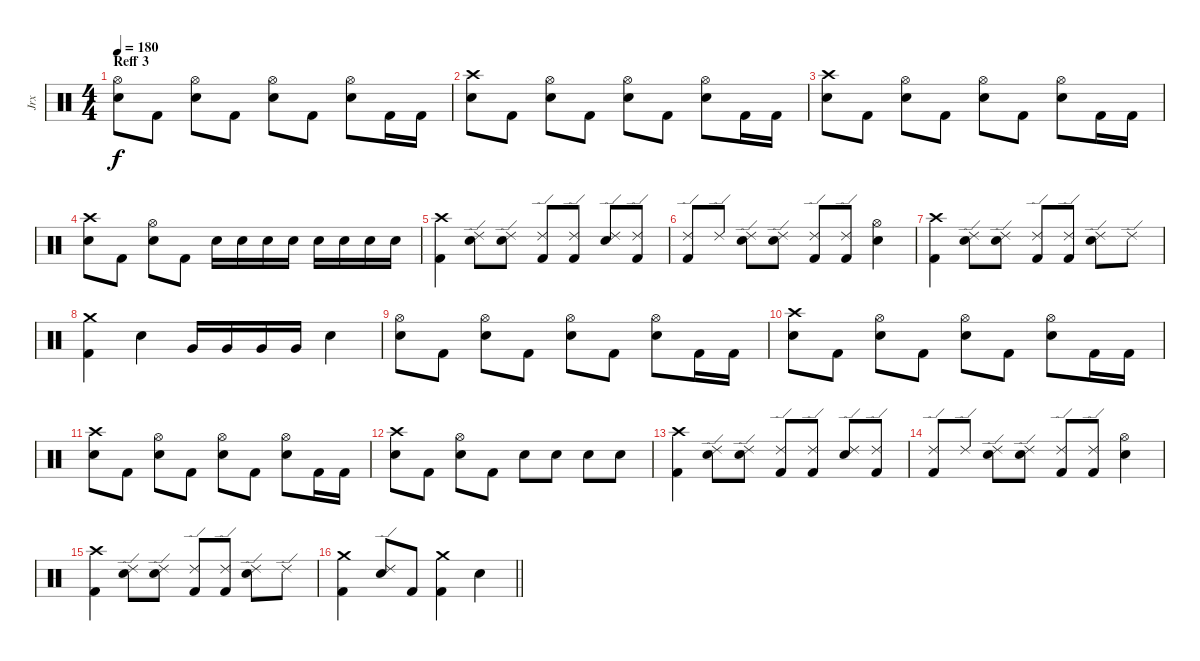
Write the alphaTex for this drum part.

\track ("Jrx" "Jrx") {instrument percussion}
\staff {score}
\articulation defaults
\ts (4 4)
\section ("" "Reff 3")
\tempo 180
\clef neutral
\ks c
("Electric Snare (hit)" "Hi-Hat (open)").8{dy f} "Kick (hit) 2".8 ("Electric Snare (hit)" "Hi-Hat (open)").8 "Kick (hit) 2".8 ("Snare (hit) 2" "Hi-Hat (open)").8 "Kick (hit) 2".8 ("Electric Snare (hit)" "Hi-Hat (open)").8 "Kick (hit) 2".16 "Kick (hit) 2".16 |
("Electric Snare (hit)" "Crash high (hit)").8 "Kick (hit) 2".8 ("Electric Snare (hit)" "Hi-Hat (open)").8 "Kick (hit) 2".8 ("Snare (hit) 2" "Hi-Hat (open)").8 "Kick (hit) 2".8 ("Electric Snare (hit)" "Hi-Hat (open)").8 "Kick (hit) 2".16 "Kick (hit) 2".16 |
("Electric Snare (hit)" "Crash high (hit)").8 "Kick (hit) 2".8 ("Electric Snare (hit)" "Hi-Hat (open)").8 "Kick (hit) 2".8 ("Snare (hit) 2" "Hi-Hat (open)").8 "Kick (hit) 2".8 ("Electric Snare (hit)" "Hi-Hat (open)").8 "Kick (hit) 2".16 "Kick (hit) 2".16 |
("Electric Snare (hit)" "Crash high (hit)").8 "Kick (hit) 2".8 ("Electric Snare (hit)" "Hi-Hat (open)").8 "Kick (hit) 2".8 "Electric Snare (hit)".16 "Electric Snare (hit)".16 "Electric Snare (hit)".16 "Electric Snare (hit)".16 "Electric Snare (hit)".16 "Electric Snare (hit)".16 "Electric Snare (hit)".16 "Electric Snare (hit)".16 |
("Kick (hit) 2" "Crash high (hit)").4 ("Electric Snare (hit)" "Ride (edge) 2").8 ("Electric Snare (hit)" "Ride (edge) 2").8 ("Kick (hit) 2" "Ride (edge) 2").8 ("Kick (hit) 2" "Ride (edge) 2").8 ("Electric Snare (hit)" "Ride (edge) 2").8 ("Kick (hit) 2" "Ride (edge) 2").8 |
("Kick (hit) 2" "Ride (edge) 2").8 "Ride (edge) 2".8 ("Electric Snare (hit)" "Ride (edge) 2").8 ("Electric Snare (hit)" "Ride (edge) 2").8 ("Kick (hit) 2" "Ride (edge) 2").8 ("Kick (hit) 2" "Ride (edge) 2").8 ("Electric Snare (hit)" "Hi-Hat (open)").4 |
("Kick (hit) 2" "Crash high (hit)").4 ("Electric Snare (hit)" "Ride (edge) 2").8 ("Electric Snare (hit)" "Ride (edge) 2").8 ("Kick (hit) 2" "Ride (edge) 2").8 ("Kick (hit) 2" "Ride (edge) 2").8 ("Electric Snare (hit)" "Ride (edge) 2").8 "Ride (edge) 2".8 |
("Kick (hit) 2" "Crash medium (hit)").4 "Electric Snare (hit)".4 "Very Low Tom (hit)".16 "Very Low Tom (hit)".16 "Very Low Tom (hit)".16 "Very Low Tom (hit)".16 "Electric Snare (hit)".4 |
("Electric Snare (hit)" "Hi-Hat (open)").8 "Kick (hit) 2".8 ("Electric Snare (hit)" "Hi-Hat (open)").8 "Kick (hit) 2".8 ("Snare (hit) 2" "Hi-Hat (open)").8 "Kick (hit) 2".8 ("Electric Snare (hit)" "Hi-Hat (open)").8 "Kick (hit) 2".16 "Kick (hit) 2".16 |
("Electric Snare (hit)" "Crash high (hit)").8 "Kick (hit) 2".8 ("Electric Snare (hit)" "Hi-Hat (open)").8 "Kick (hit) 2".8 ("Snare (hit) 2" "Hi-Hat (open)").8 "Kick (hit) 2".8 ("Electric Snare (hit)" "Hi-Hat (open)").8 "Kick (hit) 2".16 "Kick (hit) 2".16 |
("Electric Snare (hit)" "Crash high (hit)").8 "Kick (hit) 2".8 ("Electric Snare (hit)" "Hi-Hat (open)").8 "Kick (hit) 2".8 ("Snare (hit) 2" "Hi-Hat (open)").8 "Kick (hit) 2".8 ("Electric Snare (hit)" "Hi-Hat (open)").8 "Kick (hit) 2".16 "Kick (hit) 2".16 |
("Electric Snare (hit)" "Crash high (hit)").8 "Kick (hit) 2".8 ("Electric Snare (hit)" "Hi-Hat (open)").8 "Kick (hit) 2".8 "Electric Snare (hit)".8 "Electric Snare (hit)".8 "Electric Snare (hit)".8 "Electric Snare (hit)".8 |
("Kick (hit) 2" "Crash high (hit)").4 ("Electric Snare (hit)" "Ride (edge) 2").8 ("Electric Snare (hit)" "Ride (edge) 2").8 ("Kick (hit) 2" "Ride (edge) 2").8 ("Kick (hit) 2" "Ride (edge) 2").8 ("Electric Snare (hit)" "Ride (edge) 2").8 ("Kick (hit) 2" "Ride (edge) 2").8 |
("Kick (hit) 2" "Ride (edge) 2").8 "Ride (edge) 2".8 ("Electric Snare (hit)" "Ride (edge) 2").8 ("Electric Snare (hit)" "Ride (edge) 2").8 ("Kick (hit) 2" "Ride (edge) 2").8 ("Kick (hit) 2" "Ride (edge) 2").8 ("Electric Snare (hit)" "Hi-Hat (open)").4 |
("Kick (hit) 2" "Crash high (hit)").4 ("Electric Snare (hit)" "Ride (edge) 2").8 ("Electric Snare (hit)" "Ride (edge) 2").8 ("Kick (hit) 2" "Ride (edge) 2").8 ("Kick (hit) 2" "Ride (edge) 2").8 ("Electric Snare (hit)" "Ride (edge) 2").8 "Ride (edge) 2".8 |
\barLineRight lightlight
("Kick (hit) 2" "Crash medium (hit)").4 ("Electric Snare (hit)" "Ride (edge) 2").8 "Kick (hit) 2".8 ("Kick (hit) 2" "Crash medium (hit)").4 "Electric Snare (hit)".4
